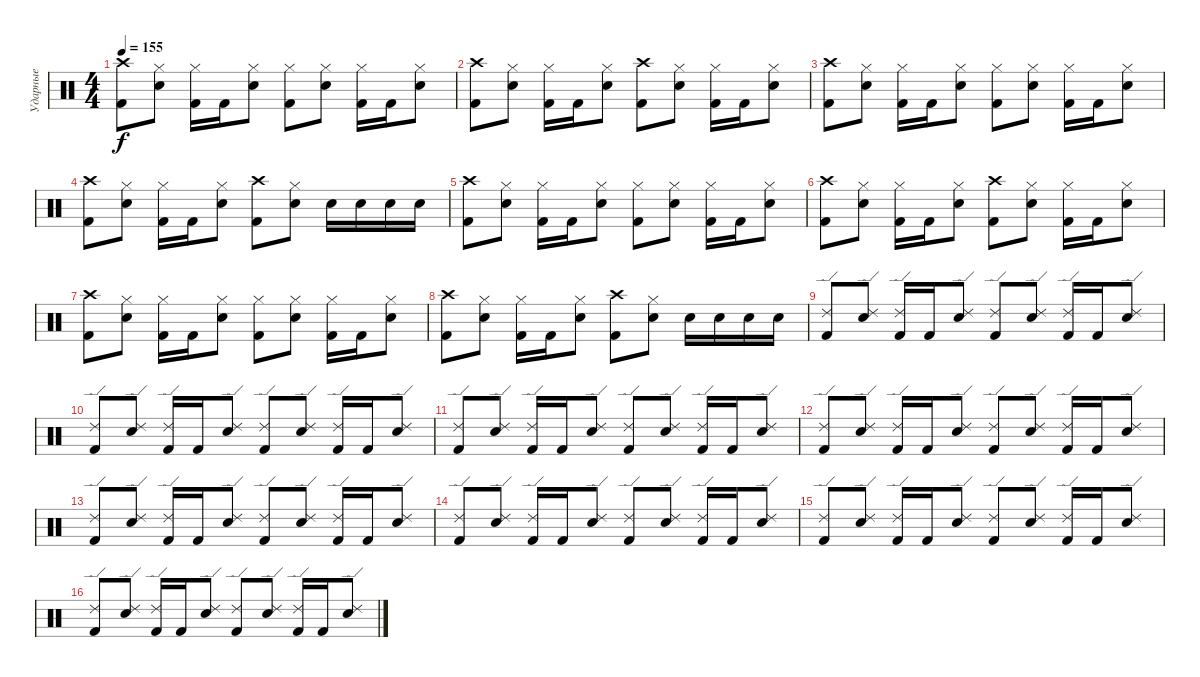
\track ("Ударные" "Ударные") {instrument percussion}
\staff {score}
\articulation defaults
\ts (4 4)
\tempo 155
\clef neutral
\ks c
("Crash high (hit)" "Kick (hit) 2").8{dy f} ("Hi-Hat (closed)" "Electric Snare (hit)").8 ("Hi-Hat (closed)" "Kick (hit) 2").16 "Kick (hit) 2".16 ("Hi-Hat (closed)" "Electric Snare (hit)").8 ("Hi-Hat (closed)" "Kick (hit) 2").8 ("Hi-Hat (closed)" "Electric Snare (hit)").8 ("Hi-Hat (closed)" "Kick (hit) 2").16 "Kick (hit) 2".16 ("Hi-Hat (closed)" "Electric Snare (hit)").8 |
("Crash high (hit)" "Kick (hit) 2").8 ("Hi-Hat (closed)" "Electric Snare (hit)").8 ("Hi-Hat (closed)" "Kick (hit) 2").16 "Kick (hit) 2".16 ("Hi-Hat (closed)" "Electric Snare (hit)").8 ("Crash high (hit)" "Kick (hit) 2").8 ("Hi-Hat (closed)" "Electric Snare (hit)").8 ("Hi-Hat (closed)" "Kick (hit) 2").16 "Kick (hit) 2".16 ("Hi-Hat (closed)" "Electric Snare (hit)").8 |
("Crash high (hit)" "Kick (hit) 2").8 ("Hi-Hat (closed)" "Electric Snare (hit)").8 ("Hi-Hat (closed)" "Kick (hit) 2").16 "Kick (hit) 2".16 ("Hi-Hat (closed)" "Electric Snare (hit)").8 ("Hi-Hat (closed)" "Kick (hit) 2").8 ("Hi-Hat (closed)" "Electric Snare (hit)").8 ("Hi-Hat (closed)" "Kick (hit) 2").16 "Kick (hit) 2".16 ("Hi-Hat (closed)" "Electric Snare (hit)").8 |
("Crash high (hit)" "Kick (hit) 2").8 ("Hi-Hat (closed)" "Electric Snare (hit)").8 ("Hi-Hat (closed)" "Kick (hit) 2").16 "Kick (hit) 2".16 ("Hi-Hat (closed)" "Electric Snare (hit)").8 ("Crash high (hit)" "Kick (hit) 2").8 ("Hi-Hat (closed)" "Electric Snare (hit)").8 "Electric Snare (hit)".16 "Electric Snare (hit)".16 "Electric Snare (hit)".16 "Electric Snare (hit)".16 |
("Crash high (hit)" "Kick (hit) 2").8 ("Hi-Hat (closed)" "Electric Snare (hit)").8 ("Hi-Hat (closed)" "Kick (hit) 2").16 "Kick (hit) 2".16 ("Hi-Hat (closed)" "Electric Snare (hit)").8 ("Hi-Hat (closed)" "Kick (hit) 2").8 ("Hi-Hat (closed)" "Electric Snare (hit)").8 ("Hi-Hat (closed)" "Kick (hit) 2").16 "Kick (hit) 2".16 ("Hi-Hat (closed)" "Electric Snare (hit)").8 |
("Crash high (hit)" "Kick (hit) 2").8 ("Hi-Hat (closed)" "Electric Snare (hit)").8 ("Hi-Hat (closed)" "Kick (hit) 2").16 "Kick (hit) 2".16 ("Hi-Hat (closed)" "Electric Snare (hit)").8 ("Crash high (hit)" "Kick (hit) 2").8 ("Hi-Hat (closed)" "Electric Snare (hit)").8 ("Hi-Hat (closed)" "Kick (hit) 2").16 "Kick (hit) 2".16 ("Hi-Hat (closed)" "Electric Snare (hit)").8 |
("Crash high (hit)" "Kick (hit) 2").8 ("Hi-Hat (closed)" "Electric Snare (hit)").8 ("Hi-Hat (closed)" "Kick (hit) 2").16 "Kick (hit) 2".16 ("Hi-Hat (closed)" "Electric Snare (hit)").8 ("Hi-Hat (closed)" "Kick (hit) 2").8 ("Hi-Hat (closed)" "Electric Snare (hit)").8 ("Hi-Hat (closed)" "Kick (hit) 2").16 "Kick (hit) 2".16 ("Hi-Hat (closed)" "Electric Snare (hit)").8 |
("Crash high (hit)" "Kick (hit) 2").8 ("Hi-Hat (closed)" "Electric Snare (hit)").8 ("Hi-Hat (closed)" "Kick (hit) 2").16 "Kick (hit) 2".16 ("Hi-Hat (closed)" "Electric Snare (hit)").8 ("Crash high (hit)" "Kick (hit) 2").8 ("Hi-Hat (closed)" "Electric Snare (hit)").8 "Electric Snare (hit)".16 "Electric Snare (hit)".16 "Electric Snare (hit)".16 "Electric Snare (hit)".16 |
("Ride (edge) 2" "Kick (hit) 2").8 ("Ride (edge) 2" "Electric Snare (hit)").8 ("Ride (edge) 2" "Kick (hit) 2").16 "Kick (hit) 2".16 ("Ride (edge) 2" "Electric Snare (hit)").8 ("Ride (edge) 2" "Kick (hit) 2").8 ("Ride (edge) 2" "Electric Snare (hit)").8 ("Ride (edge) 2" "Kick (hit) 2").16 "Kick (hit) 2".16 ("Ride (edge) 2" "Electric Snare (hit)").8 |
("Ride (edge) 2" "Kick (hit) 2").8 ("Ride (edge) 2" "Electric Snare (hit)").8 ("Ride (edge) 2" "Kick (hit) 2").16 "Kick (hit) 2".16 ("Ride (edge) 2" "Electric Snare (hit)").8 ("Ride (edge) 2" "Kick (hit) 2").8 ("Ride (edge) 2" "Electric Snare (hit)").8 ("Ride (edge) 2" "Kick (hit) 2").16 "Kick (hit) 2".16 ("Ride (edge) 2" "Electric Snare (hit)").8 |
("Ride (edge) 2" "Kick (hit) 2").8 ("Ride (edge) 2" "Electric Snare (hit)").8 ("Ride (edge) 2" "Kick (hit) 2").16 "Kick (hit) 2".16 ("Ride (edge) 2" "Electric Snare (hit)").8 ("Ride (edge) 2" "Kick (hit) 2").8 ("Ride (edge) 2" "Electric Snare (hit)").8 ("Ride (edge) 2" "Kick (hit) 2").16 "Kick (hit) 2".16 ("Ride (edge) 2" "Electric Snare (hit)").8 |
("Ride (edge) 2" "Kick (hit) 2").8 ("Ride (edge) 2" "Electric Snare (hit)").8 ("Ride (edge) 2" "Kick (hit) 2").16 "Kick (hit) 2".16 ("Ride (edge) 2" "Electric Snare (hit)").8 ("Ride (edge) 2" "Kick (hit) 2").8 ("Ride (edge) 2" "Electric Snare (hit)").8 ("Ride (edge) 2" "Kick (hit) 2").16 "Kick (hit) 2".16 ("Ride (edge) 2" "Electric Snare (hit)").8 |
("Ride (edge) 2" "Kick (hit) 2").8 ("Ride (edge) 2" "Electric Snare (hit)").8 ("Ride (edge) 2" "Kick (hit) 2").16 "Kick (hit) 2".16 ("Ride (edge) 2" "Electric Snare (hit)").8 ("Ride (edge) 2" "Kick (hit) 2").8 ("Ride (edge) 2" "Electric Snare (hit)").8 ("Ride (edge) 2" "Kick (hit) 2").16 "Kick (hit) 2".16 ("Ride (edge) 2" "Electric Snare (hit)").8 |
("Ride (edge) 2" "Kick (hit) 2").8 ("Ride (edge) 2" "Electric Snare (hit)").8 ("Ride (edge) 2" "Kick (hit) 2").16 "Kick (hit) 2".16 ("Ride (edge) 2" "Electric Snare (hit)").8 ("Ride (edge) 2" "Kick (hit) 2").8 ("Ride (edge) 2" "Electric Snare (hit)").8 ("Ride (edge) 2" "Kick (hit) 2").16 "Kick (hit) 2".16 ("Ride (edge) 2" "Electric Snare (hit)").8 |
("Ride (edge) 2" "Kick (hit) 2").8 ("Ride (edge) 2" "Electric Snare (hit)").8 ("Ride (edge) 2" "Kick (hit) 2").16 "Kick (hit) 2".16 ("Ride (edge) 2" "Electric Snare (hit)").8 ("Ride (edge) 2" "Kick (hit) 2").8 ("Ride (edge) 2" "Electric Snare (hit)").8 ("Ride (edge) 2" "Kick (hit) 2").16 "Kick (hit) 2".16 ("Ride (edge) 2" "Electric Snare (hit)").8 |
("Ride (edge) 2" "Kick (hit) 2").8 ("Ride (edge) 2" "Electric Snare (hit)").8 ("Ride (edge) 2" "Kick (hit) 2").16 "Kick (hit) 2".16 ("Ride (edge) 2" "Electric Snare (hit)").8 ("Ride (edge) 2" "Kick (hit) 2").8 ("Ride (edge) 2" "Electric Snare (hit)").8 ("Ride (edge) 2" "Kick (hit) 2").16 "Kick (hit) 2".16 ("Ride (edge) 2" "Electric Snare (hit)").8
